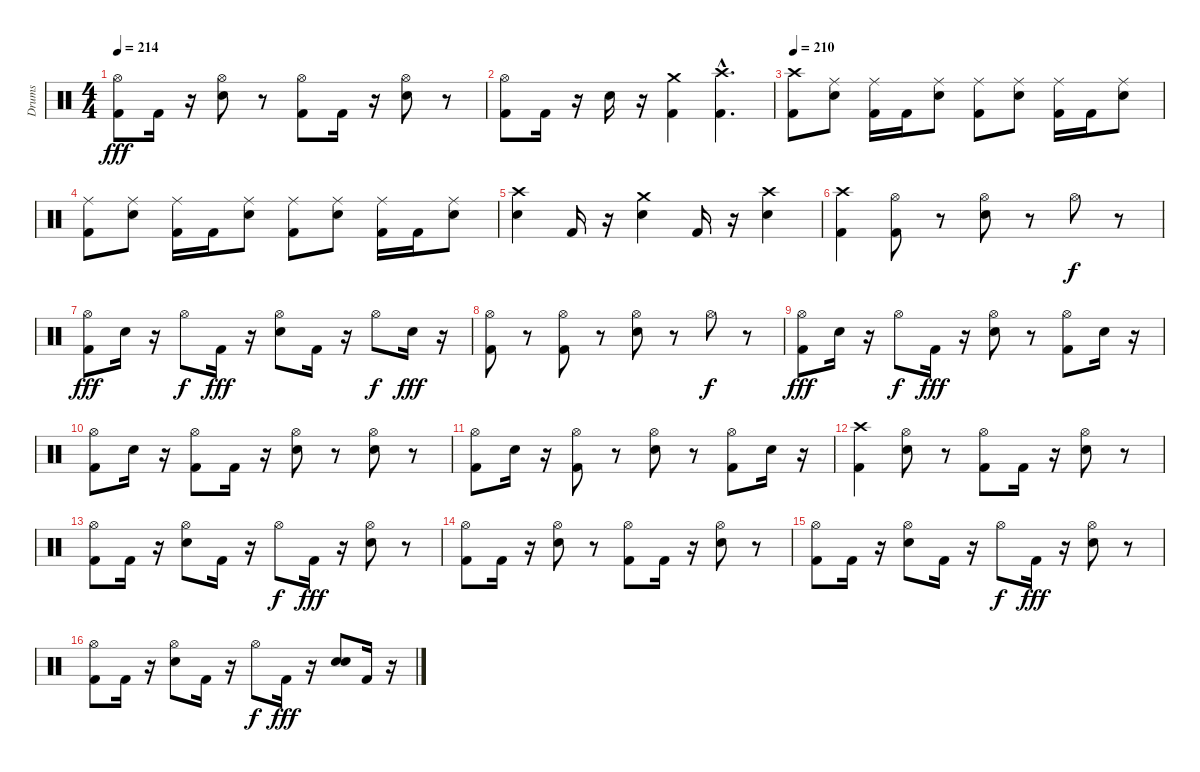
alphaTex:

\track ("Drums" "Drums") {instrument percussion}
\staff {score}
\articulation defaults
\ts (4 4)
\tempo 214
\clef neutral
\ks c
("Kick (hit) 2" "Hi-Hat (open)").8{dy fff} "Kick (hit) 2".16 r.16 ("Electric Snare (hit)" "Hi-Hat (open)").8 r.8 ("Kick (hit) 2" "Hi-Hat (open)").8 "Kick (hit) 2".16 r.16 ("Electric Snare (hit)" "Hi-Hat (open)").8 r.8 |
("Kick (hit) 2" "Hi-Hat (open)").8 "Kick (hit) 2".16 r.16 "Electric Snare (hit)".16 r.16 ("Kick (hit) 2" "Crash medium (hit)").4 ("Kick (hit) 2" "Crash high (hit)"{hac}).4{d} |
\tempo 210
("Kick (hit) 2" "Crash high (hit)").8 ("Electric Snare (hit)" "Ride (middle)").8 ("Kick (hit) 2" "Ride (middle)").16 "Kick (hit) 2".16 ("Electric Snare (hit)" "Ride (middle)").8 ("Kick (hit) 2" "Ride (middle)").8 ("Electric Snare (hit)" "Ride (middle)").8 ("Kick (hit) 2" "Ride (middle)").16 "Kick (hit) 2".16 ("Electric Snare (hit)" "Ride (middle)").8 |
("Kick (hit) 2" "Ride (middle)").8 ("Electric Snare (hit)" "Ride (middle)").8 ("Kick (hit) 2" "Ride (middle)").16 "Kick (hit) 2".16 ("Electric Snare (hit)" "Ride (middle)").8 ("Kick (hit) 2" "Ride (middle)").8 ("Electric Snare (hit)" "Ride (middle)").8 ("Kick (hit) 2" "Ride (middle)").16 "Kick (hit) 2".16 ("Electric Snare (hit)" "Ride (middle)").8 |
("Electric Snare (hit)" "Crash high (hit)").4 "Kick (hit) 2".16 r.16 ("Electric Snare (hit)" "Crash medium (hit)").4 "Kick (hit) 2".16 r.16 ("Electric Snare (hit)" "Crash high (hit)").4 |
("Kick (hit) 2" "Crash high (hit)").4 ("Kick (hit) 2" "Hi-Hat (open)").8 r.8 ("Electric Snare (hit)" "Hi-Hat (open)").8 r.8 "Hi-Hat (open)".8{dy f} r.8 |
("Kick (hit) 2" "Hi-Hat (open)").8{dy fff} "Electric Snare (hit)".16 r.16 "Hi-Hat (open)".8{dy f} "Kick (hit) 2".16{dy fff} r.16 ("Electric Snare (hit)" "Hi-Hat (open)").8 "Kick (hit) 2".16 r.16 "Hi-Hat (open)".8{dy f} "Electric Snare (hit)".16{dy fff} r.16 |
("Kick (hit) 2" "Hi-Hat (open)").8 r.8 ("Kick (hit) 2" "Hi-Hat (open)").8 r.8 ("Electric Snare (hit)" "Hi-Hat (open)").8 r.8 "Hi-Hat (open)".8{dy f} r.8 |
("Kick (hit) 2" "Hi-Hat (open)").8{dy fff} "Electric Snare (hit)".16 r.16 "Hi-Hat (open)".8{dy f} "Kick (hit) 2".16{dy fff} r.16 ("Electric Snare (hit)" "Hi-Hat (open)").8 r.8 ("Kick (hit) 2" "Hi-Hat (open)").8 "Electric Snare (hit)".16 r.16 |
("Kick (hit) 2" "Hi-Hat (open)").8 "Electric Snare (hit)".16 r.16 ("Kick (hit) 2" "Hi-Hat (open)").8 "Kick (hit) 2".16 r.16 ("Electric Snare (hit)" "Hi-Hat (open)").8 r.8 ("Electric Snare (hit)" "Hi-Hat (open)").8 r.8 |
("Kick (hit) 2" "Hi-Hat (open)").8 "Electric Snare (hit)".16 r.16 ("Kick (hit) 2" "Hi-Hat (open)").8 r.8 ("Electric Snare (hit)" "Hi-Hat (open)").8 r.8 ("Kick (hit) 2" "Hi-Hat (open)").8 "Electric Snare (hit)".16 r.16 |
("Kick (hit) 2" "Crash high (hit)").4 ("Electric Snare (hit)" "Hi-Hat (open)").8 r.8 ("Kick (hit) 2" "Hi-Hat (open)").8 "Kick (hit) 2".16 r.16 ("Electric Snare (hit)" "Hi-Hat (open)").8 r.8 |
("Kick (hit) 2" "Hi-Hat (open)").8 "Kick (hit) 2".16 r.16 ("Electric Snare (hit)" "Hi-Hat (open)").8 "Kick (hit) 2".16 r.16 "Hi-Hat (open)".8{dy f} "Kick (hit) 2".16{dy fff} r.16 ("Electric Snare (hit)" "Hi-Hat (open)").8 r.8 |
("Kick (hit) 2" "Hi-Hat (open)").8 "Kick (hit) 2".16 r.16 ("Electric Snare (hit)" "Hi-Hat (open)").8 r.8 ("Kick (hit) 2" "Hi-Hat (open)").8 "Kick (hit) 2".16 r.16 ("Electric Snare (hit)" "Hi-Hat (open)").8 r.8 |
("Kick (hit) 2" "Hi-Hat (open)").8 "Kick (hit) 2".16 r.16 ("Electric Snare (hit)" "Hi-Hat (open)").8 "Kick (hit) 2".16 r.16 "Hi-Hat (open)".8{dy f} "Kick (hit) 2".16{dy fff} r.16 ("Electric Snare (hit)" "Hi-Hat (open)").8 r.8 |
("Kick (hit) 2" "Hi-Hat (open)").8 "Kick (hit) 2".16 r.16 ("Electric Snare (hit)" "Hi-Hat (open)").8 "Kick (hit) 2".16 r.16 "Hi-Hat (open)".8{dy f} "Kick (hit) 2".16{dy fff} r.16 ("Electric Snare (hit)" "Electric Snare (hit)").8 "Kick (hit) 2".16 r.16
